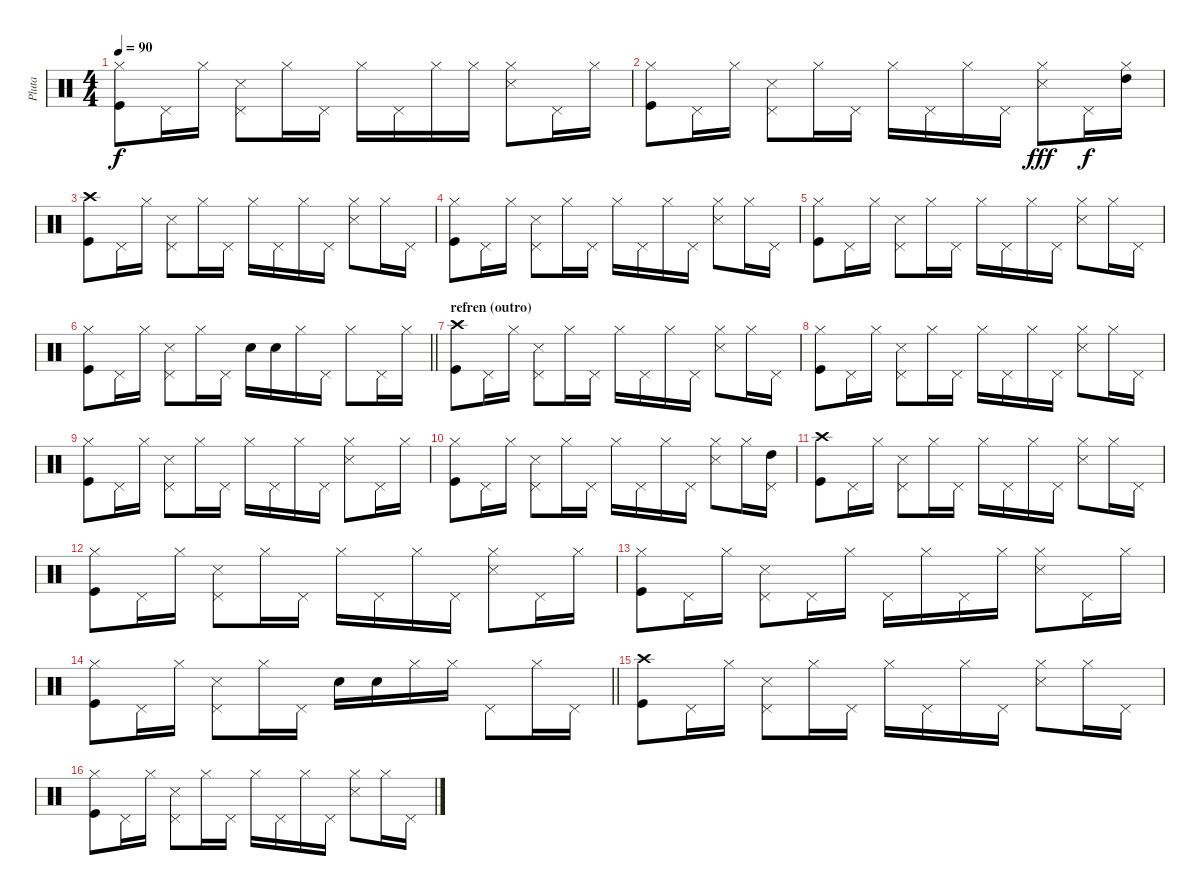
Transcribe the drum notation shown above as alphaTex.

\track ("Pluta" "Pluta") {instrument percussion}
\staff {score}
\articulation defaults
\ts (4 4)
\tempo 90
\clef neutral
\ks c
("Hi-Hat (closed)" "Kick (hit)").8{dy f} "Pedal Hi-Hat (hit)".16 "Hi-Hat (closed)".16 ("Pedal Hi-Hat (hit)" "Snare (side stick) 3").8 "Hi-Hat (closed)".16 "Pedal Hi-Hat (hit)".16 "Hi-Hat (closed)".16 "Pedal Hi-Hat (hit)".16 "Hi-Hat (closed)".16 "Hi-Hat (closed)".16 ("Hi-Hat (closed)" "Snare (side stick) 3").8 "Pedal Hi-Hat (hit)".16 "Hi-Hat (closed)".16 |
("Hi-Hat (closed)" "Kick (hit)").8 "Pedal Hi-Hat (hit)".16 "Hi-Hat (closed)".16 ("Pedal Hi-Hat (hit)" "Snare (side stick) 3").8 "Hi-Hat (closed)".16 "Pedal Hi-Hat (hit)".16 "Hi-Hat (closed)".16 "Pedal Hi-Hat (hit)".16 "Hi-Hat (closed)".16 "Pedal Hi-Hat (hit)".16 ("Hi-Hat (closed)" "Snare (side stick) 3").8{dy fff} "Pedal Hi-Hat (hit)".16{dy f} ("Hi-Hat (closed)" "High Tom (hit)").16 |
("Crash high (hit)" "Kick (hit)").8 "Pedal Hi-Hat (hit)".16 "Hi-Hat (closed)".16 ("Pedal Hi-Hat (hit)" "Snare (side stick) 3").8 "Hi-Hat (closed)".16 "Pedal Hi-Hat (hit)".16 "Hi-Hat (closed)".16 "Pedal Hi-Hat (hit)".16 "Hi-Hat (closed)".16 "Pedal Hi-Hat (hit)".16 ("Hi-Hat (closed)" "Snare (side stick) 3").8 "Hi-Hat (closed)".16 "Pedal Hi-Hat (hit)".16 |
("Hi-Hat (closed)" "Kick (hit)").8 "Pedal Hi-Hat (hit)".16 "Hi-Hat (closed)".16 ("Pedal Hi-Hat (hit)" "Snare (side stick) 3").8 "Hi-Hat (closed)".16 "Pedal Hi-Hat (hit)".16 "Hi-Hat (closed)".16 "Pedal Hi-Hat (hit)".16 "Hi-Hat (closed)".16 "Pedal Hi-Hat (hit)".16 ("Hi-Hat (closed)" "Snare (side stick) 3").8 "Hi-Hat (closed)".16 "Pedal Hi-Hat (hit)".16 |
("Hi-Hat (closed)" "Kick (hit)").8 "Pedal Hi-Hat (hit)".16 "Hi-Hat (closed)".16 ("Pedal Hi-Hat (hit)" "Snare (side stick) 3").8 "Hi-Hat (closed)".16 "Pedal Hi-Hat (hit)".16 "Hi-Hat (closed)".16 "Pedal Hi-Hat (hit)".16 "Hi-Hat (closed)".16 "Pedal Hi-Hat (hit)".16 ("Hi-Hat (closed)" "Snare (side stick) 3").8 "Hi-Hat (closed)".16 "Pedal Hi-Hat (hit)".16 |
\barLineRight lightlight
("Hi-Hat (closed)" "Kick (hit)").8 "Pedal Hi-Hat (hit)".16 "Hi-Hat (closed)".16 ("Pedal Hi-Hat (hit)" "Snare (side stick) 3").8 "Hi-Hat (closed)".16 "Pedal Hi-Hat (hit)".16 "Snare (hit) 2".16 "Snare (hit) 2".16 "Hi-Hat (closed)".16 "Pedal Hi-Hat (hit)".16 "Hi-Hat (closed)".8 "Pedal Hi-Hat (hit)".16 "Hi-Hat (closed)".16 |
\section ("" "refren (outro)")
("Crash high (hit)" "Kick (hit)").8 "Pedal Hi-Hat (hit)".16 "Hi-Hat (closed)".16 ("Pedal Hi-Hat (hit)" "Snare (side stick) 3").8 "Hi-Hat (closed)".16 "Pedal Hi-Hat (hit)".16 "Hi-Hat (closed)".16 "Pedal Hi-Hat (hit)".16 "Hi-Hat (closed)".16 "Pedal Hi-Hat (hit)".16 ("Hi-Hat (closed)" "Snare (side stick) 3").8 "Hi-Hat (closed)".16 "Pedal Hi-Hat (hit)".16 |
("Hi-Hat (closed)" "Kick (hit)").8 "Pedal Hi-Hat (hit)".16 "Hi-Hat (closed)".16 ("Pedal Hi-Hat (hit)" "Snare (side stick) 3").8 "Hi-Hat (closed)".16 "Pedal Hi-Hat (hit)".16 "Hi-Hat (closed)".16 "Pedal Hi-Hat (hit)".16 "Hi-Hat (closed)".16 "Pedal Hi-Hat (hit)".16 ("Hi-Hat (closed)" "Snare (side stick) 3").8 "Hi-Hat (closed)".16 "Pedal Hi-Hat (hit)".16 |
("Hi-Hat (closed)" "Kick (hit)").8 "Pedal Hi-Hat (hit)".16 "Hi-Hat (closed)".16 ("Pedal Hi-Hat (hit)" "Snare (side stick) 3").8 "Hi-Hat (closed)".16 "Pedal Hi-Hat (hit)".16 "Hi-Hat (closed)".16 "Pedal Hi-Hat (hit)".16 "Hi-Hat (closed)".16 "Pedal Hi-Hat (hit)".16 ("Hi-Hat (closed)" "Snare (side stick) 3").8 "Pedal Hi-Hat (hit)".16 "Hi-Hat (closed)".16 |
("Hi-Hat (closed)" "Kick (hit)").8 "Pedal Hi-Hat (hit)".16 "Hi-Hat (closed)".16 ("Pedal Hi-Hat (hit)" "Snare (side stick) 3").8 "Hi-Hat (closed)".16 "Pedal Hi-Hat (hit)".16 "Hi-Hat (closed)".16 "Pedal Hi-Hat (hit)".16 "Hi-Hat (closed)".16 "Pedal Hi-Hat (hit)".16 ("Hi-Hat (closed)" "Snare (side stick) 3").8 "Hi-Hat (closed)".16 ("Pedal Hi-Hat (hit)" "High Tom (hit)").16 |
("Crash high (hit)" "Kick (hit)").8 "Pedal Hi-Hat (hit)".16 "Hi-Hat (closed)".16 ("Pedal Hi-Hat (hit)" "Snare (side stick) 3").8 "Hi-Hat (closed)".16 "Pedal Hi-Hat (hit)".16 "Hi-Hat (closed)".16 "Pedal Hi-Hat (hit)".16 "Hi-Hat (closed)".16 "Pedal Hi-Hat (hit)".16 ("Hi-Hat (closed)" "Snare (side stick) 3").8 "Hi-Hat (closed)".16 "Pedal Hi-Hat (hit)".16 |
("Hi-Hat (closed)" "Kick (hit)").8 "Pedal Hi-Hat (hit)".16 "Hi-Hat (closed)".16 ("Pedal Hi-Hat (hit)" "Snare (side stick) 3").8 "Hi-Hat (closed)".16 "Pedal Hi-Hat (hit)".16 "Hi-Hat (closed)".16 "Pedal Hi-Hat (hit)".16 "Hi-Hat (closed)".16 "Pedal Hi-Hat (hit)".16 ("Hi-Hat (closed)" "Snare (side stick) 3").8 "Pedal Hi-Hat (hit)".16 "Hi-Hat (closed)".16 |
("Hi-Hat (closed)" "Kick (hit)").8 "Pedal Hi-Hat (hit)".16 "Hi-Hat (closed)".16 ("Pedal Hi-Hat (hit)" "Snare (side stick) 3").8 "Pedal Hi-Hat (hit)".16 "Hi-Hat (closed)".16 "Pedal Hi-Hat (hit)".16 "Hi-Hat (closed)".16 "Pedal Hi-Hat (hit)".16 "Hi-Hat (closed)".16 ("Hi-Hat (closed)" "Snare (side stick) 3").8 "Pedal Hi-Hat (hit)".16 "Hi-Hat (closed)".16 |
\barLineRight lightlight
("Hi-Hat (closed)" "Kick (hit)").8 "Pedal Hi-Hat (hit)".16 "Hi-Hat (closed)".16 ("Pedal Hi-Hat (hit)" "Snare (side stick) 3").8 "Hi-Hat (closed)".16 "Pedal Hi-Hat (hit)".16 "Snare (hit) 2".16 "Snare (hit) 2".16 "Hi-Hat (closed)".16 "Hi-Hat (closed)".16 "Pedal Hi-Hat (hit)".8 "Hi-Hat (closed)".16 "Pedal Hi-Hat (hit)".16 |
("Crash high (hit)" "Kick (hit)").8 "Pedal Hi-Hat (hit)".16 "Hi-Hat (closed)".16 ("Pedal Hi-Hat (hit)" "Snare (side stick) 3").8 "Hi-Hat (closed)".16 "Pedal Hi-Hat (hit)".16 "Hi-Hat (closed)".16 "Pedal Hi-Hat (hit)".16 "Hi-Hat (closed)".16 "Pedal Hi-Hat (hit)".16 ("Hi-Hat (closed)" "Snare (side stick) 3").8 "Hi-Hat (closed)".16 "Pedal Hi-Hat (hit)".16 |
("Hi-Hat (closed)" "Kick (hit)").8 "Pedal Hi-Hat (hit)".16 "Hi-Hat (closed)".16 ("Pedal Hi-Hat (hit)" "Snare (side stick) 3").8 "Hi-Hat (closed)".16 "Pedal Hi-Hat (hit)".16 "Hi-Hat (closed)".16 "Pedal Hi-Hat (hit)".16 "Hi-Hat (closed)".16 "Pedal Hi-Hat (hit)".16 ("Hi-Hat (closed)" "Snare (side stick) 3").8 "Hi-Hat (closed)".16 "Pedal Hi-Hat (hit)".16
